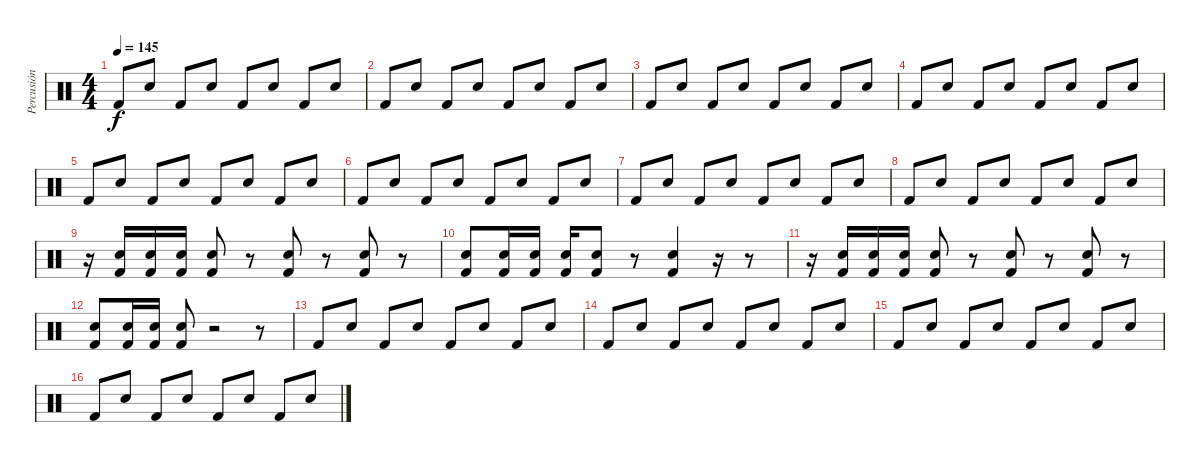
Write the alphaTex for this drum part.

\track ("Percusión" "Percusión") {instrument percussion}
\staff {score}
\articulation defaults
\ts (4 4)
\tempo 145
\clef neutral
\ks c "Kick (hit) 2".8{dy f} "Snare (hit) 2".8 "Kick (hit) 2".8 "Snare (hit) 2".8 "Kick (hit) 2".8 "Snare (hit) 2".8 "Kick (hit) 2".8 "Snare (hit) 2".8
|
"Kick (hit) 2".8 "Snare (hit) 2".8 "Kick (hit) 2".8 "Snare (hit) 2".8 "Kick (hit) 2".8 "Snare (hit) 2".8 "Kick (hit) 2".8 "Snare (hit) 2".8 |
"Kick (hit) 2".8 "Snare (hit) 2".8 "Kick (hit) 2".8 "Snare (hit) 2".8 "Kick (hit) 2".8 "Snare (hit) 2".8 "Kick (hit) 2".8 "Snare (hit) 2".8 |
"Kick (hit) 2".8 "Snare (hit) 2".8 "Kick (hit) 2".8 "Snare (hit) 2".8 "Kick (hit) 2".8 "Snare (hit) 2".8 "Kick (hit) 2".8 "Snare (hit) 2".8 |
"Kick (hit) 2".8 "Snare (hit) 2".8 "Kick (hit) 2".8 "Snare (hit) 2".8 "Kick (hit) 2".8 "Snare (hit) 2".8 "Kick (hit) 2".8 "Snare (hit) 2".8 |
"Kick (hit) 2".8 "Snare (hit) 2".8 "Kick (hit) 2".8 "Snare (hit) 2".8 "Kick (hit) 2".8 "Snare (hit) 2".8 "Kick (hit) 2".8 "Snare (hit) 2".8 |
"Kick (hit) 2".8 "Snare (hit) 2".8 "Kick (hit) 2".8 "Snare (hit) 2".8 "Kick (hit) 2".8 "Snare (hit) 2".8 "Kick (hit) 2".8 "Snare (hit) 2".8 |
"Kick (hit) 2".8 "Snare (hit) 2".8 "Kick (hit) 2".8 "Snare (hit) 2".8 "Kick (hit) 2".8 "Snare (hit) 2".8 "Kick (hit) 2".8 "Snare (hit) 2".8 |
r.16 ("Snare (hit) 2" "Kick (hit) 2").16 ("Snare (hit) 2" "Kick (hit) 2").16 ("Snare (hit) 2" "Kick (hit) 2").16 ("Snare (hit) 2" "Kick (hit) 2").8 r.8 ("Snare (hit) 2" "Kick (hit) 2").8 r.8 ("Snare (hit) 2" "Kick (hit) 2").8 r.8 |
("Snare (hit) 2" "Kick (hit) 2").8 ("Snare (hit) 2" "Kick (hit) 2").16 ("Snare (hit) 2" "Kick (hit) 2").16 ("Snare (hit) 2" "Kick (hit) 2").16 ("Snare (hit) 2" "Kick (hit) 2").8 r.8 ("Snare (hit) 2" "Kick (hit) 2").4 r.16 r.8 |
r.16 ("Snare (hit) 2" "Kick (hit) 2").16 ("Snare (hit) 2" "Kick (hit) 2").16 ("Snare (hit) 2" "Kick (hit) 2").16 ("Snare (hit) 2" "Kick (hit) 2").8 r.8 ("Snare (hit) 2" "Kick (hit) 2").8 r.8 ("Snare (hit) 2" "Kick (hit) 2").8 r.8 |
("Snare (hit) 2" "Kick (hit) 2").8 ("Snare (hit) 2" "Kick (hit) 2").16 ("Snare (hit) 2" "Kick (hit) 2").16 ("Snare (hit) 2" "Kick (hit) 2").8 r.2 r.8 |
"Kick (hit) 2".8 "Snare (hit) 2".8 "Kick (hit) 2".8 "Snare (hit) 2".8 "Kick (hit) 2".8 "Snare (hit) 2".8 "Kick (hit) 2".8 "Snare (hit) 2".8 |
"Kick (hit) 2".8 "Snare (hit) 2".8 "Kick (hit) 2".8 "Snare (hit) 2".8 "Kick (hit) 2".8 "Snare (hit) 2".8 "Kick (hit) 2".8 "Snare (hit) 2".8 |
"Kick (hit) 2".8 "Snare (hit) 2".8 "Kick (hit) 2".8 "Snare (hit) 2".8 "Kick (hit) 2".8 "Snare (hit) 2".8 "Kick (hit) 2".8 "Snare (hit) 2".8 |
"Kick (hit) 2".8 "Snare (hit) 2".8 "Kick (hit) 2".8 "Snare (hit) 2".8 "Kick (hit) 2".8 "Snare (hit) 2".8 "Kick (hit) 2".8 "Snare (hit) 2".8
